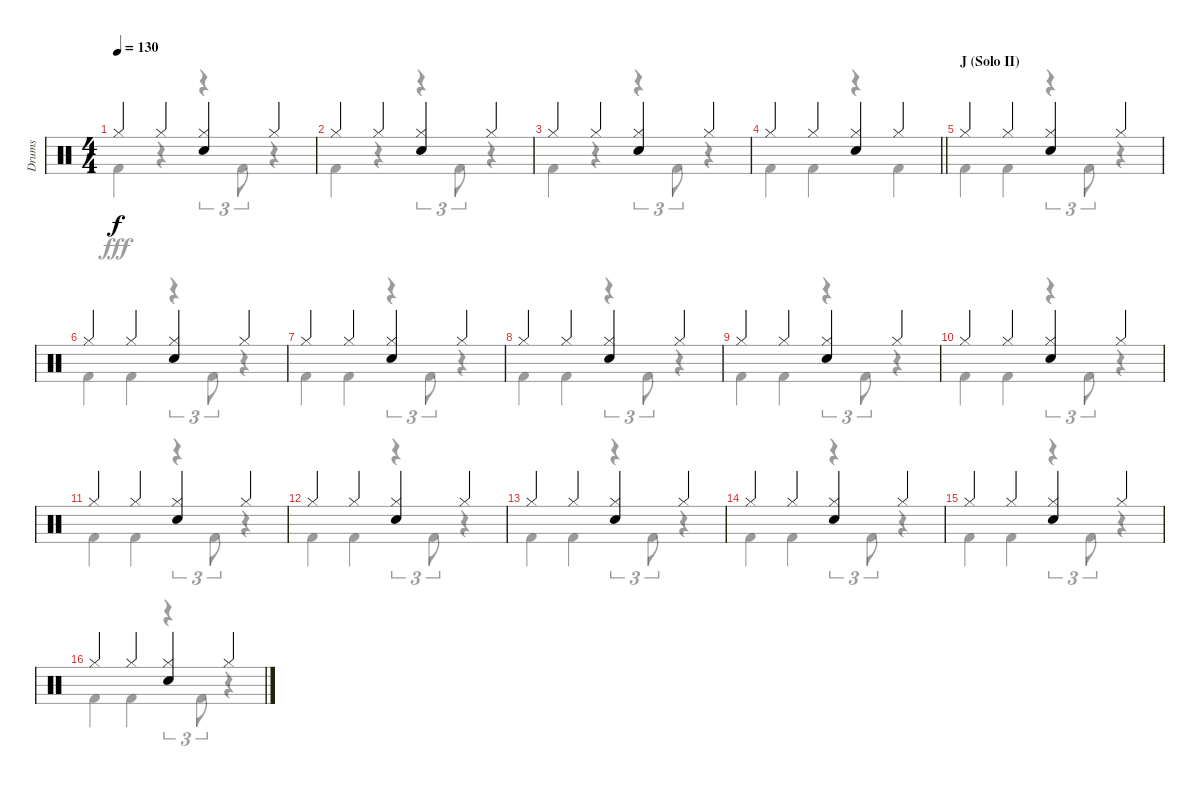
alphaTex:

\track ("Drums" "Drums") {instrument percussion}
\staff {score}
\articulation defaults
\voice
\ts (4 4)
\tempo 130
\clef neutral
\ks c "Hi-Hat (closed)".4{dy f} "Hi-Hat (closed)".4
("Hi-Hat (closed)" "Snare (hit) 2").4 "Hi-Hat (closed)".4 |
"Hi-Hat (closed)".4 "Hi-Hat (closed)".4 ("Hi-Hat (closed)" "Snare (hit) 2").4 "Hi-Hat (closed)".4 |
"Hi-Hat (closed)".4 "Hi-Hat (closed)".4 ("Hi-Hat (closed)" "Snare (hit) 2").4 "Hi-Hat (closed)".4 |
\barLineRight lightlight "Hi-Hat (closed)".4 "Hi-Hat (closed)".4
("Hi-Hat (closed)" "Snare (hit) 2").4 "Hi-Hat (closed)".4 |
\section ("" "J (Solo II)")
"Hi-Hat (closed)".4 "Hi-Hat (closed)".4 ("Hi-Hat (closed)" "Snare (hit) 2").4 "Hi-Hat (closed)".4 |
"Hi-Hat (closed)".4 "Hi-Hat (closed)".4 ("Hi-Hat (closed)" "Snare (hit) 2").4 "Hi-Hat (closed)".4 |
"Hi-Hat (closed)".4 "Hi-Hat (closed)".4 ("Hi-Hat (closed)" "Snare (hit) 2").4 "Hi-Hat (closed)".4 |
"Hi-Hat (closed)".4 "Hi-Hat (closed)".4 ("Hi-Hat (closed)" "Snare (hit) 2").4 "Hi-Hat (closed)".4 |
"Hi-Hat (closed)".4 "Hi-Hat (closed)".4 ("Hi-Hat (closed)" "Snare (hit) 2").4 "Hi-Hat (closed)".4 |
"Hi-Hat (closed)".4 "Hi-Hat (closed)".4 ("Hi-Hat (closed)" "Snare (hit) 2").4 "Hi-Hat (closed)".4 |
"Hi-Hat (closed)".4 "Hi-Hat (closed)".4 ("Hi-Hat (closed)" "Snare (hit) 2").4 "Hi-Hat (closed)".4 |
"Hi-Hat (closed)".4 "Hi-Hat (closed)".4 ("Hi-Hat (closed)" "Snare (hit) 2").4 "Hi-Hat (closed)".4 |
"Hi-Hat (closed)".4 "Hi-Hat (closed)".4 ("Hi-Hat (closed)" "Snare (hit) 2").4 "Hi-Hat (closed)".4 |
"Hi-Hat (closed)".4 "Hi-Hat (closed)".4 ("Hi-Hat (closed)" "Snare (hit) 2").4 "Hi-Hat (closed)".4 |
"Hi-Hat (closed)".4 "Hi-Hat (closed)".4 ("Hi-Hat (closed)" "Snare (hit) 2").4 "Hi-Hat (closed)".4 |
"Hi-Hat (closed)".4 "Hi-Hat (closed)".4 ("Hi-Hat (closed)" "Snare (hit) 2").4 "Hi-Hat (closed)".4
\voice
\clef neutral
\ottava regular
\simile none
\ks c "Kick (hit) 2".4{dy fff}
r.4 r.4{tu (3 2)} "Kick (hit) 2".8{tu (3 2)} r.4 |
"Kick (hit) 2".4 r.4 r.4{tu (3 2)} "Kick (hit) 2".8{tu (3 2)} r.4 |
"Kick (hit) 2".4 r.4 r.4{tu (3 2)} "Kick (hit) 2".8{tu (3 2)} r.4 |
\barLineRight lightlight "Kick (hit) 2".4 "Kick (hit) 2".4
r.4 "Kick (hit) 2".4 |
"Kick (hit) 2".4 "Kick (hit) 2".4 r.4{tu (3 2)} "Kick (hit) 2".8{tu (3 2)} r.4 |
"Kick (hit) 2".4 "Kick (hit) 2".4 r.4{tu (3 2)} "Kick (hit) 2".8{tu (3 2)} r.4 |
"Kick (hit) 2".4 "Kick (hit) 2".4 r.4{tu (3 2)} "Kick (hit) 2".8{tu (3 2)} r.4 |
"Kick (hit) 2".4 "Kick (hit) 2".4 r.4{tu (3 2)} "Kick (hit) 2".8{tu (3 2)} r.4 |
"Kick (hit) 2".4 "Kick (hit) 2".4 r.4{tu (3 2)} "Kick (hit) 2".8{tu (3 2)} r.4 |
"Kick (hit) 2".4 "Kick (hit) 2".4 r.4{tu (3 2)} "Kick (hit) 2".8{tu (3 2)} r.4 |
"Kick (hit) 2".4 "Kick (hit) 2".4 r.4{tu (3 2)} "Kick (hit) 2".8{tu (3 2)} r.4 |
"Kick (hit) 2".4 "Kick (hit) 2".4 r.4{tu (3 2)} "Kick (hit) 2".8{tu (3 2)} r.4 |
"Kick (hit) 2".4 "Kick (hit) 2".4 r.4{tu (3 2)} "Kick (hit) 2".8{tu (3 2)} r.4 |
"Kick (hit) 2".4 "Kick (hit) 2".4 r.4{tu (3 2)} "Kick (hit) 2".8{tu (3 2)} r.4 |
"Kick (hit) 2".4 "Kick (hit) 2".4 r.4{tu (3 2)} "Kick (hit) 2".8{tu (3 2)} r.4 |
"Kick (hit) 2".4 "Kick (hit) 2".4 r.4{tu (3 2)} "Kick (hit) 2".8{tu (3 2)} r.4
